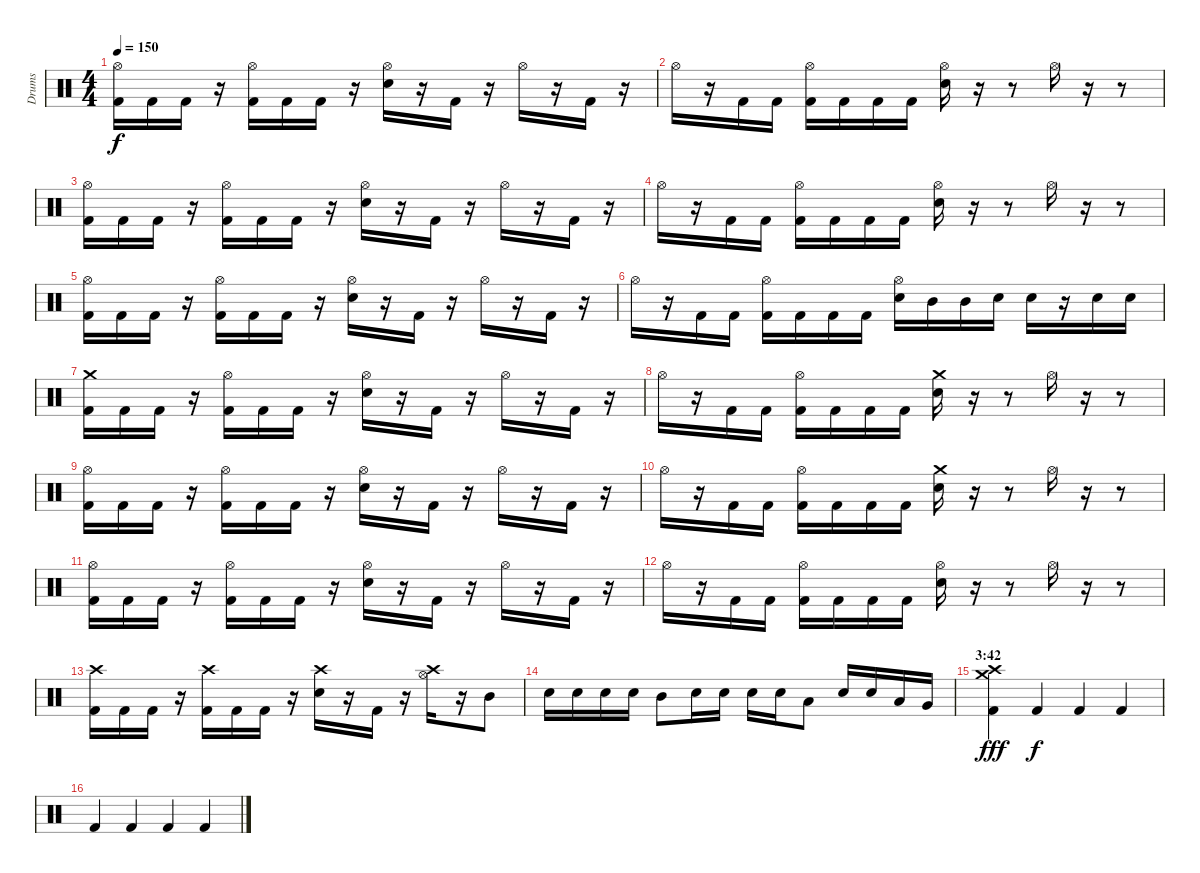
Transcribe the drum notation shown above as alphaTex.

\track ("Drums" "Drums") {instrument percussion}
\staff {score}
\articulation defaults
\ts (4 4)
\tempo 150
\clef neutral
\ks c
("Hi-Hat (open)" "Kick (hit) 2").16{dy f} "Kick (hit) 2".16 "Kick (hit) 2".16 r.16 ("Hi-Hat (open)" "Kick (hit) 2").16 "Kick (hit) 2".16 "Kick (hit) 2".16 r.16 ("Hi-Hat (open)" "Electric Snare (hit)").16 r.16 "Kick (hit) 2".16 r.16 "Hi-Hat (open)".16 r.16 "Kick (hit) 2".16 r.16 |
"Hi-Hat (open)".16 r.16 "Kick (hit) 2".16 "Kick (hit) 2".16 ("Hi-Hat (open)" "Kick (hit) 2").16 "Kick (hit) 2".16 "Kick (hit) 2".16 "Kick (hit) 2".16 ("Hi-Hat (open)" "Electric Snare (hit)").16 r.16 r.8 "Hi-Hat (open)".16 r.16 r.8 |
("Hi-Hat (open)" "Kick (hit) 2").16 "Kick (hit) 2".16 "Kick (hit) 2".16 r.16 ("Hi-Hat (open)" "Kick (hit) 2").16 "Kick (hit) 2".16 "Kick (hit) 2".16 r.16 ("Hi-Hat (open)" "Electric Snare (hit)").16 r.16 "Kick (hit) 2".16 r.16 "Hi-Hat (open)".16 r.16 "Kick (hit) 2".16 r.16 |
"Hi-Hat (open)".16 r.16 "Kick (hit) 2".16 "Kick (hit) 2".16 ("Hi-Hat (open)" "Kick (hit) 2").16 "Kick (hit) 2".16 "Kick (hit) 2".16 "Kick (hit) 2".16 ("Hi-Hat (open)" "Electric Snare (hit)").16 r.16 r.8 "Hi-Hat (open)".16 r.16 r.8 |
("Hi-Hat (open)" "Kick (hit) 2").16 "Kick (hit) 2".16 "Kick (hit) 2".16 r.16 ("Hi-Hat (open)" "Kick (hit) 2").16 "Kick (hit) 2".16 "Kick (hit) 2".16 r.16 ("Hi-Hat (open)" "Electric Snare (hit)").16 r.16 "Kick (hit) 2".16 r.16 "Hi-Hat (open)".16 r.16 "Kick (hit) 2".16 r.16 |
"Hi-Hat (open)".16 r.16 "Kick (hit) 2".16 "Kick (hit) 2".16 ("Hi-Hat (open)" "Kick (hit) 2").16 "Kick (hit) 2".16 "Kick (hit) 2".16 "Kick (hit) 2".16 ("Hi-Hat (open)" "Electric Snare (hit)").16 "Mid Tom (hit)".16 "Mid Tom (hit)".16 "Electric Snare (hit)".16 "Electric Snare (hit)".16 r.16 "Electric Snare (hit)".16 "Electric Snare (hit)".16 |
("Crash medium (hit)" "Kick (hit) 2").16 "Kick (hit) 2".16 "Kick (hit) 2".16 r.16 ("Hi-Hat (open)" "Kick (hit) 2").16 "Kick (hit) 2".16 "Kick (hit) 2".16 r.16 ("Hi-Hat (open)" "Electric Snare (hit)").16 r.16 "Kick (hit) 2".16 r.16 "Hi-Hat (open)".16 r.16 "Kick (hit) 2".16 r.16 |
"Hi-Hat (open)".16 r.16 "Kick (hit) 2".16 "Kick (hit) 2".16 ("Hi-Hat (open)" "Kick (hit) 2").16 "Kick (hit) 2".16 "Kick (hit) 2".16 "Kick (hit) 2".16 ("Crash medium (hit)" "Electric Snare (hit)").16 r.16 r.8 "Hi-Hat (open)".16 r.16 r.8 |
("Hi-Hat (open)" "Kick (hit) 2").16 "Kick (hit) 2".16 "Kick (hit) 2".16 r.16 ("Hi-Hat (open)" "Kick (hit) 2").16 "Kick (hit) 2".16 "Kick (hit) 2".16 r.16 ("Hi-Hat (open)" "Electric Snare (hit)").16 r.16 "Kick (hit) 2".16 r.16 "Hi-Hat (open)".16 r.16 "Kick (hit) 2".16 r.16 |
"Hi-Hat (open)".16 r.16 "Kick (hit) 2".16 "Kick (hit) 2".16 ("Hi-Hat (open)" "Kick (hit) 2").16 "Kick (hit) 2".16 "Kick (hit) 2".16 "Kick (hit) 2".16 ("Crash medium (hit)" "Electric Snare (hit)").16 r.16 r.8 "Hi-Hat (open)".16 r.16 r.8 |
("Hi-Hat (open)" "Kick (hit) 2").16 "Kick (hit) 2".16 "Kick (hit) 2".16 r.16 ("Hi-Hat (open)" "Kick (hit) 2").16 "Kick (hit) 2".16 "Kick (hit) 2".16 r.16 ("Hi-Hat (open)" "Electric Snare (hit)").16 r.16 "Kick (hit) 2".16 r.16 "Hi-Hat (open)".16 r.16 "Kick (hit) 2".16 r.16 |
"Hi-Hat (open)".16 r.16 "Kick (hit) 2".16 "Kick (hit) 2".16 ("Hi-Hat (open)" "Kick (hit) 2").16 "Kick (hit) 2".16 "Kick (hit) 2".16 "Kick (hit) 2".16 ("Hi-Hat (open)" "Electric Snare (hit)").16 r.16 r.8 "Hi-Hat (open)".16 r.16 r.8 |
("Crash high (hit)" "Kick (hit) 2").16 "Kick (hit) 2".16 "Kick (hit) 2".16 r.16 ("Crash high (hit)" "Kick (hit) 2").16 "Kick (hit) 2".16 "Kick (hit) 2".16 r.16 ("Crash high (hit)" "Electric Snare (hit)").16 r.16 "Kick (hit) 2".16 r.16 ("Crash high (hit)" "Hi-Hat (open)").16 r.16 "Mid Tom (hit)".8 |
"Electric Snare (hit)".16 "Electric Snare (hit)".16 "Electric Snare (hit)".16 "Electric Snare (hit)".16 "Mid Tom (hit)".8 "Electric Snare (hit)".16 "Electric Snare (hit)".16 "Electric Snare (hit)".16 "Electric Snare (hit)".16 "Low Tom (hit)".8 "Electric Snare (hit)".16 "Electric Snare (hit)".16 "Low Tom (hit)".16 "Very Low Tom (hit)".16 |
\section ("" "3:42")
("Crash medium (hit)" "Crash high (hit)" "Kick (hit) 2").4{dy fff} "Kick (hit) 2".4{dy f} "Kick (hit) 2".4 "Kick (hit) 2".4 |
"Kick (hit) 2".4 "Kick (hit) 2".4 "Kick (hit) 2".4 "Kick (hit) 2".4
